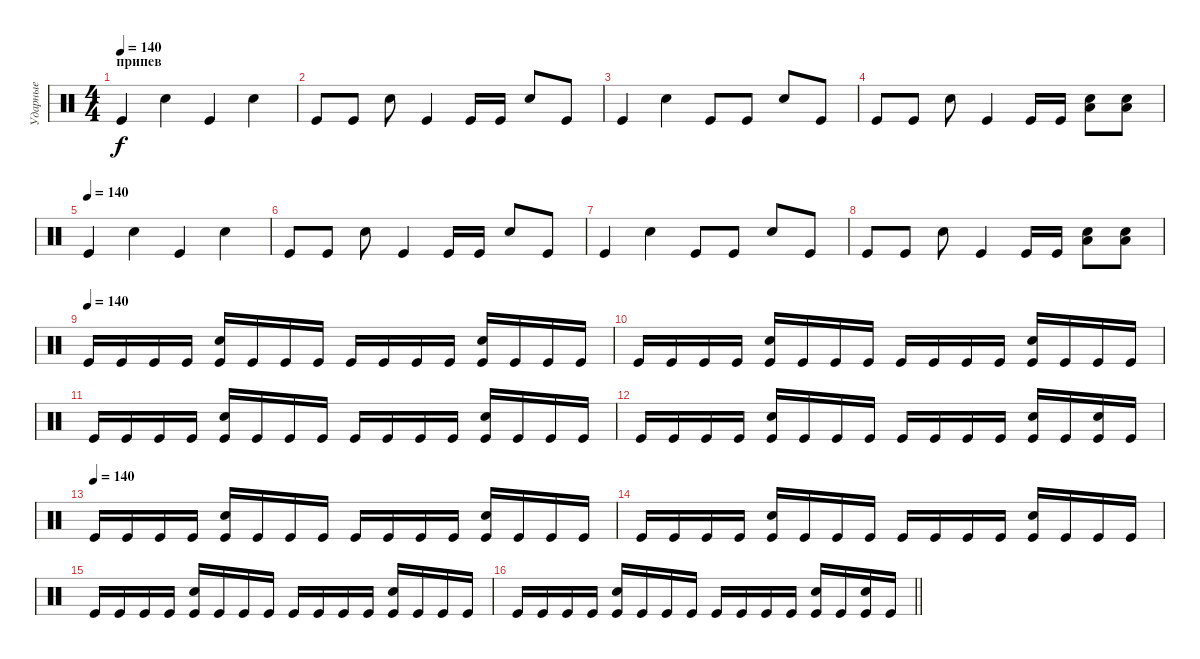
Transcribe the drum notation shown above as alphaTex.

\track ("Ударные" "Ударные") {instrument percussion}
\staff {score}
\articulation defaults
\ts (4 4)
\section ("" "припев")
\tempo 140
\clef neutral
\ks c "Kick (hit)".4{dy f} "Electric Snare (hit)".4 "Kick (hit)".4 "Electric Snare (hit)".4
|
"Kick (hit)".8 "Kick (hit)".8 "Electric Snare (hit)".8 "Kick (hit)".4 "Kick (hit)".16 "Kick (hit)".16 "Electric Snare (hit)".8 "Kick (hit)".8 |
"Kick (hit)".4 "Electric Snare (hit)".4 "Kick (hit)".8 "Kick (hit)".8 "Electric Snare (hit)".8 "Kick (hit)".8 |
"Kick (hit)".8 "Kick (hit)".8 "Electric Snare (hit)".8 "Kick (hit)".4 "Kick (hit)".16 "Kick (hit)".16 ("Low Floor Tom (hit)" "Electric Snare (hit)").8 ("Low Floor Tom (hit)" "Electric Snare (hit)").8 |
\tempo (140)
"Kick (hit)".4 "Electric Snare (hit)".4 "Kick (hit)".4 "Electric Snare (hit)".4 |
"Kick (hit)".8 "Kick (hit)".8 "Electric Snare (hit)".8 "Kick (hit)".4 "Kick (hit)".16 "Kick (hit)".16 "Electric Snare (hit)".8 "Kick (hit)".8 |
"Kick (hit)".4 "Electric Snare (hit)".4 "Kick (hit)".8 "Kick (hit)".8 "Electric Snare (hit)".8 "Kick (hit)".8 |
"Kick (hit)".8 "Kick (hit)".8 "Electric Snare (hit)".8 "Kick (hit)".4 "Kick (hit)".16 "Kick (hit)".16 ("Low Floor Tom (hit)" "Electric Snare (hit)").8 ("Low Floor Tom (hit)" "Electric Snare (hit)").8 |
\tempo (140)
"Kick (hit)".16 "Kick (hit)".16 "Kick (hit)".16 "Kick (hit)".16 ("Kick (hit)" "Electric Snare (hit)").16 "Kick (hit)".16 "Kick (hit)".16 "Kick (hit)".16 "Kick (hit)".16 "Kick (hit)".16 "Kick (hit)".16 "Kick (hit)".16 ("Kick (hit)" "Electric Snare (hit)").16 "Kick (hit)".16 "Kick (hit)".16 "Kick (hit)".16 |
"Kick (hit)".16 "Kick (hit)".16 "Kick (hit)".16 "Kick (hit)".16 ("Kick (hit)" "Electric Snare (hit)").16 "Kick (hit)".16 "Kick (hit)".16 "Kick (hit)".16 "Kick (hit)".16 "Kick (hit)".16 "Kick (hit)".16 "Kick (hit)".16 ("Kick (hit)" "Electric Snare (hit)").16 "Kick (hit)".16 "Kick (hit)".16 "Kick (hit)".16 |
"Kick (hit)".16 "Kick (hit)".16 "Kick (hit)".16 "Kick (hit)".16 ("Kick (hit)" "Electric Snare (hit)").16 "Kick (hit)".16 "Kick (hit)".16 "Kick (hit)".16 "Kick (hit)".16 "Kick (hit)".16 "Kick (hit)".16 "Kick (hit)".16 ("Kick (hit)" "Electric Snare (hit)").16 "Kick (hit)".16 "Kick (hit)".16 "Kick (hit)".16 |
"Kick (hit)".16 "Kick (hit)".16 "Kick (hit)".16 "Kick (hit)".16 ("Kick (hit)" "Electric Snare (hit)").16 "Kick (hit)".16 "Kick (hit)".16 "Kick (hit)".16 "Kick (hit)".16 "Kick (hit)".16 "Kick (hit)".16 "Kick (hit)".16 ("Kick (hit)" "Electric Snare (hit)").16 "Kick (hit)".16 ("Kick (hit)" "Electric Snare (hit)").16 "Kick (hit)".16 |
\tempo (140)
"Kick (hit)".16 "Kick (hit)".16 "Kick (hit)".16 "Kick (hit)".16 ("Kick (hit)" "Electric Snare (hit)").16 "Kick (hit)".16 "Kick (hit)".16 "Kick (hit)".16 "Kick (hit)".16 "Kick (hit)".16 "Kick (hit)".16 "Kick (hit)".16 ("Kick (hit)" "Electric Snare (hit)").16 "Kick (hit)".16 "Kick (hit)".16 "Kick (hit)".16 |
"Kick (hit)".16 "Kick (hit)".16 "Kick (hit)".16 "Kick (hit)".16 ("Kick (hit)" "Electric Snare (hit)").16 "Kick (hit)".16 "Kick (hit)".16 "Kick (hit)".16 "Kick (hit)".16 "Kick (hit)".16 "Kick (hit)".16 "Kick (hit)".16 ("Kick (hit)" "Electric Snare (hit)").16 "Kick (hit)".16 "Kick (hit)".16 "Kick (hit)".16 |
"Kick (hit)".16 "Kick (hit)".16 "Kick (hit)".16 "Kick (hit)".16 ("Kick (hit)" "Electric Snare (hit)").16 "Kick (hit)".16 "Kick (hit)".16 "Kick (hit)".16 "Kick (hit)".16 "Kick (hit)".16 "Kick (hit)".16 "Kick (hit)".16 ("Kick (hit)" "Electric Snare (hit)").16 "Kick (hit)".16 "Kick (hit)".16 "Kick (hit)".16 |
\barLineRight lightlight "Kick (hit)".16 "Kick (hit)".16 "Kick (hit)".16 "Kick (hit)".16
("Kick (hit)" "Electric Snare (hit)").16 "Kick (hit)".16 "Kick (hit)".16 "Kick (hit)".16 "Kick (hit)".16 "Kick (hit)".16 "Kick (hit)".16 "Kick (hit)".16 ("Kick (hit)" "Electric Snare (hit)").16 "Kick (hit)".16 ("Kick (hit)" "Electric Snare (hit)").16 "Kick (hit)".16
